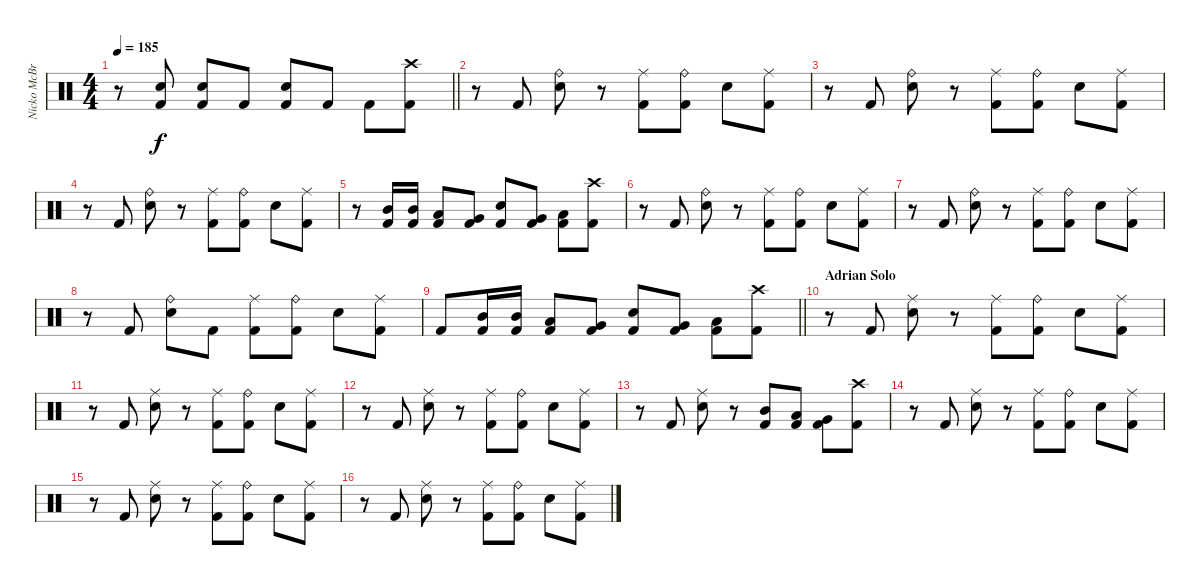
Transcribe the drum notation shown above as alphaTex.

\track ("Nicko McBrain" "Nicko McBr") {instrument percussion}
\staff {score}
\articulation defaults
\ts (4 4)
\tempo 185
\clef neutral
\barLineRight lightlight
\ks c
r.8{dy f} ("Snare (hit) 2" "Kick (hit) 2").8 ("Snare (hit) 2" "Kick (hit) 2").8 "Kick (hit) 2".8 ("Snare (hit) 2" "Kick (hit) 2").8 "Kick (hit) 2".8 "Kick (hit) 2".8 ("Crash high (hit)" "Kick (hit) 2").8 |
r.8 "Kick (hit) 2".8 ("Ride (bell)" "Snare (hit) 2").8 r.8 ("Ride (middle)" "Kick (hit) 2").8 ("Ride (bell)" "Kick (hit) 2").8 "Snare (hit) 2".8 ("Ride (middle)" "Kick (hit) 2").8 |
r.8 "Kick (hit) 2".8 ("Ride (bell)" "Snare (hit) 2").8 r.8 ("Ride (middle)" "Kick (hit) 2").8 ("Ride (bell)" "Kick (hit) 2").8 "Snare (hit) 2".8 ("Ride (middle)" "Kick (hit) 2").8 |
r.8 "Kick (hit) 2".8 ("Ride (bell)" "Snare (hit) 2").8 r.8 ("Ride (middle)" "Kick (hit) 2").8 ("Ride (bell)" "Kick (hit) 2").8 "Snare (hit) 2".8 ("Ride (middle)" "Kick (hit) 2").8 |
r.8 ("Mid Tom (hit)" "Kick (hit) 2").16 ("Mid Tom (hit)" "Kick (hit) 2").16 ("Low Tom (hit)" "Kick (hit) 2").8 ("Very Low Tom (hit)" "Kick (hit) 2").8 ("Snare (hit) 2" "Kick (hit) 2").8 ("Very Low Tom (hit)" "Kick (hit) 2").8 ("Low Floor Tom (hit)" "Kick (hit) 2").8 ("Crash high (hit)" "Kick (hit) 2").8 |
r.8 "Kick (hit) 2".8 ("Ride (bell)" "Snare (hit) 2").8 r.8 ("Ride (middle)" "Kick (hit) 2").8 ("Ride (bell)" "Kick (hit) 2").8 "Snare (hit) 2".8 ("Ride (middle)" "Kick (hit) 2").8 |
r.8 "Kick (hit) 2".8 ("Ride (bell)" "Snare (hit) 2").8 r.8 ("Ride (middle)" "Kick (hit) 2").8 ("Ride (bell)" "Kick (hit) 2").8 "Snare (hit) 2".8 ("Ride (middle)" "Kick (hit) 2").8 |
r.8 "Kick (hit) 2".8 ("Ride (bell)" "Snare (hit) 2").8 "Kick (hit) 2".8 ("Ride (middle)" "Kick (hit) 2").8 ("Ride (bell)" "Kick (hit) 2").8 "Snare (hit) 2".8 ("Ride (middle)" "Kick (hit) 2").8 |
\barLineRight lightlight "Kick (hit) 2".8
("Mid Tom (hit)" "Kick (hit) 2").16 ("Mid Tom (hit)" "Kick (hit) 2").16 ("Low Tom (hit)" "Kick (hit) 2").8 ("Very Low Tom (hit)" "Kick (hit) 2").8 ("Snare (hit) 2" "Kick (hit) 2").8 ("Very Low Tom (hit)" "Kick (hit) 2").8 ("Low Floor Tom (hit)" "Kick (hit) 2").8 ("Crash high (hit)" "Kick (hit) 2").8 |
\section ("" "Adrian Solo")
r.8 "Kick (hit) 2".8 ("Ride (middle)" "Snare (hit) 2").8 r.8 ("Ride (middle)" "Kick (hit) 2").8 ("Ride (bell)" "Kick (hit) 2").8 "Snare (hit) 2".8 ("Ride (middle)" "Kick (hit) 2").8 |
r.8 "Kick (hit) 2".8 ("Ride (middle)" "Snare (hit) 2").8 r.8 ("Ride (middle)" "Kick (hit) 2").8 ("Ride (bell)" "Kick (hit) 2").8 "Snare (hit) 2".8 ("Ride (middle)" "Kick (hit) 2").8 |
r.8 "Kick (hit) 2".8 ("Ride (middle)" "Snare (hit) 2").8 r.8 ("Ride (middle)" "Kick (hit) 2").8 ("Ride (bell)" "Kick (hit) 2").8 "Snare (hit) 2".8 ("Ride (middle)" "Kick (hit) 2").8 |
r.8 "Kick (hit) 2".8 ("Ride (middle)" "Snare (hit) 2").8 r.8 ("Mid Tom (hit)" "Kick (hit) 2").8 ("Low Tom (hit)" "Kick (hit) 2").8 ("Very Low Tom (hit)" "Kick (hit) 2").8 ("Crash high (hit)" "Kick (hit) 2").8 |
r.8 "Kick (hit) 2".8 ("Ride (middle)" "Snare (hit) 2").8 r.8 ("Ride (middle)" "Kick (hit) 2").8 ("Ride (bell)" "Kick (hit) 2").8 "Snare (hit) 2".8 ("Ride (middle)" "Kick (hit) 2").8 |
r.8 "Kick (hit) 2".8 ("Ride (middle)" "Snare (hit) 2").8 r.8 ("Ride (middle)" "Kick (hit) 2").8 ("Ride (bell)" "Kick (hit) 2").8 "Snare (hit) 2".8 ("Ride (middle)" "Kick (hit) 2").8 |
r.8 "Kick (hit) 2".8 ("Ride (middle)" "Snare (hit) 2").8 r.8 ("Ride (middle)" "Kick (hit) 2").8 ("Ride (bell)" "Kick (hit) 2").8 "Snare (hit) 2".8 ("Ride (middle)" "Kick (hit) 2").8
